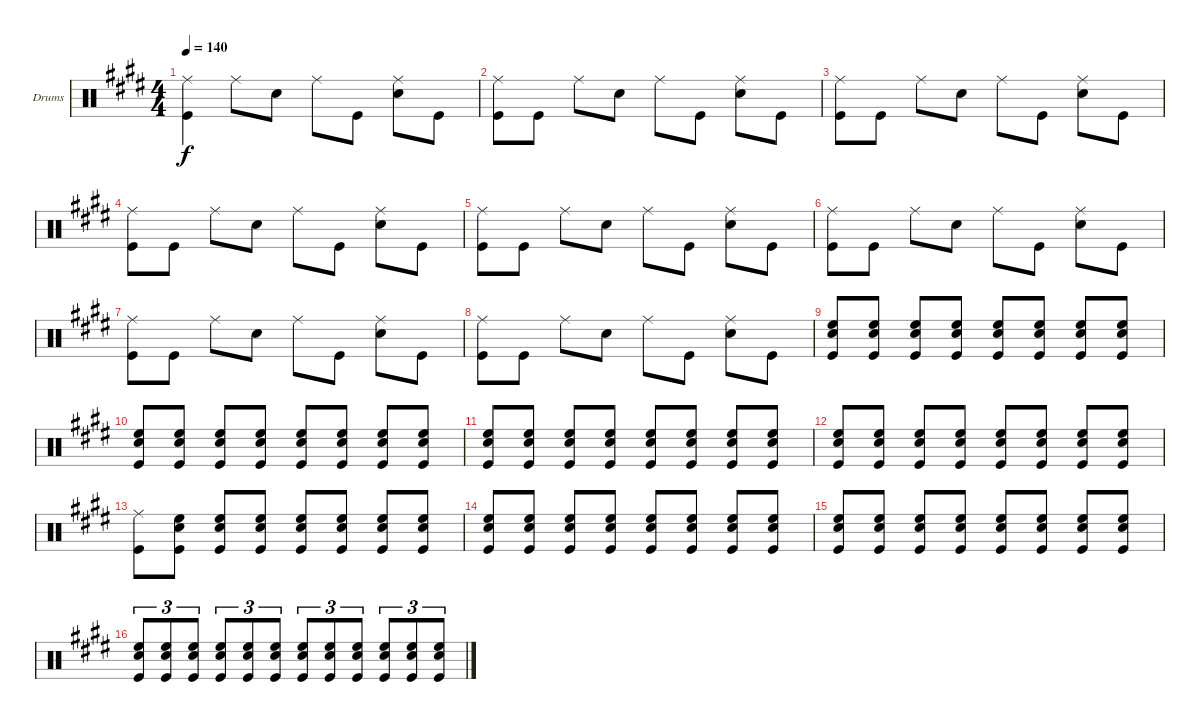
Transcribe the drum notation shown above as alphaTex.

\bracketExtendMode groupsimilarinstruments
\firstSystemTrackNameOrientation horizontal
\otherSystemsTrackNameOrientation horizontal
\track ("Drumkit" "Drums") {instrument percussion}
\staff {score}
\articulation defaults
\ts (4 4)
\tempo 140
\clef neutral
\ks e
("Ride (middle)" "Kick (hit)").4{dy f} "Ride (middle)".8 "Snare (hit) 2".8 "Ride (middle)".8 "Kick (hit)".8 ("Ride (middle)" "Snare (hit) 2").8 "Kick (hit)".8 |
("Ride (middle)" "Kick (hit)").8 "Kick (hit)".8 "Ride (middle)".8 "Snare (hit) 2".8 "Ride (middle)".8 "Kick (hit)".8 ("Ride (middle)" "Snare (hit) 2").8 "Kick (hit)".8 |
("Ride (middle)" "Kick (hit)").8 "Kick (hit)".8 "Ride (middle)".8 "Snare (hit) 2".8 "Ride (middle)".8 "Kick (hit)".8 ("Ride (middle)" "Snare (hit) 2").8 "Kick (hit)".8 |
("Ride (middle)" "Kick (hit)").8 "Kick (hit)".8 "Ride (middle)".8 "Snare (hit) 2".8 "Ride (middle)".8 "Kick (hit)".8 ("Ride (middle)" "Snare (hit) 2").8 "Kick (hit)".8 |
("Ride (middle)" "Kick (hit)").8 "Kick (hit)".8 "Ride (middle)".8 "Snare (hit) 2".8 "Ride (middle)".8 "Kick (hit)".8 ("Ride (middle)" "Snare (hit) 2").8 "Kick (hit)".8 |
("Ride (middle)" "Kick (hit)").8 "Kick (hit)".8 "Ride (middle)".8 "Snare (hit) 2".8 "Ride (middle)".8 "Kick (hit)".8 ("Ride (middle)" "Snare (hit) 2").8 "Kick (hit)".8 |
("Ride (middle)" "Kick (hit)").8 "Kick (hit)".8 "Ride (middle)".8 "Snare (hit) 2".8 "Ride (middle)".8 "Kick (hit)".8 ("Ride (middle)" "Snare (hit) 2").8 "Kick (hit)".8 |
("Ride (middle)" "Kick (hit)").8 "Kick (hit)".8 "Ride (middle)".8 "Snare (hit) 2".8 "Ride (middle)".8 "Kick (hit)".8 ("Ride (middle)" "Snare (hit) 2").8 "Kick (hit)".8 |
("High Floor Tom (hit)" "Snare (hit) 2" "Kick (hit)").8 ("High Floor Tom (hit)" "Snare (hit) 2" "Kick (hit)").8 ("High Floor Tom (hit)" "Snare (hit) 2" "Kick (hit)").8 ("High Floor Tom (hit)" "Snare (hit) 2" "Kick (hit)").8 ("High Floor Tom (hit)" "Snare (hit) 2" "Kick (hit)").8 ("High Floor Tom (hit)" "Snare (hit) 2" "Kick (hit)").8 ("High Floor Tom (hit)" "Snare (hit) 2" "Kick (hit)").8 ("High Floor Tom (hit)" "Snare (hit) 2" "Kick (hit)").8 |
("High Floor Tom (hit)" "Snare (hit) 2" "Kick (hit)").8 ("High Floor Tom (hit)" "Snare (hit) 2" "Kick (hit)").8 ("High Floor Tom (hit)" "Snare (hit) 2" "Kick (hit)").8 ("High Floor Tom (hit)" "Snare (hit) 2" "Kick (hit)").8 ("High Floor Tom (hit)" "Snare (hit) 2" "Kick (hit)").8 ("High Floor Tom (hit)" "Snare (hit) 2" "Kick (hit)").8 ("High Floor Tom (hit)" "Snare (hit) 2" "Kick (hit)").8 ("High Floor Tom (hit)" "Snare (hit) 2" "Kick (hit)").8 |
("High Floor Tom (hit)" "Snare (hit) 2" "Kick (hit)").8 ("High Floor Tom (hit)" "Snare (hit) 2" "Kick (hit)").8 ("High Floor Tom (hit)" "Snare (hit) 2" "Kick (hit)").8 ("High Floor Tom (hit)" "Snare (hit) 2" "Kick (hit)").8 ("High Floor Tom (hit)" "Snare (hit) 2" "Kick (hit)").8 ("High Floor Tom (hit)" "Snare (hit) 2" "Kick (hit)").8 ("High Floor Tom (hit)" "Snare (hit) 2" "Kick (hit)").8 ("High Floor Tom (hit)" "Snare (hit) 2" "Kick (hit)").8 |
("High Floor Tom (hit)" "Snare (hit) 2" "Kick (hit)").8 ("High Floor Tom (hit)" "Snare (hit) 2" "Kick (hit)").8 ("High Floor Tom (hit)" "Snare (hit) 2" "Kick (hit)").8 ("High Floor Tom (hit)" "Snare (hit) 2" "Kick (hit)").8 ("High Floor Tom (hit)" "Snare (hit) 2" "Kick (hit)").8 ("High Floor Tom (hit)" "Snare (hit) 2" "Kick (hit)").8 ("High Floor Tom (hit)" "Snare (hit) 2" "Kick (hit)").8 ("High Floor Tom (hit)" "Snare (hit) 2" "Kick (hit)").8 |
("Ride (middle)" "Kick (hit)").8 ("High Floor Tom (hit)" "Snare (hit) 2" "Kick (hit)").8 ("High Floor Tom (hit)" "Snare (hit) 2" "Kick (hit)").8 ("High Floor Tom (hit)" "Snare (hit) 2" "Kick (hit)").8 ("High Floor Tom (hit)" "Snare (hit) 2" "Kick (hit)").8 ("High Floor Tom (hit)" "Snare (hit) 2" "Kick (hit)").8 ("High Floor Tom (hit)" "Snare (hit) 2" "Kick (hit)").8 ("High Floor Tom (hit)" "Snare (hit) 2" "Kick (hit)").8 |
("High Floor Tom (hit)" "Snare (hit) 2" "Kick (hit)").8 ("High Floor Tom (hit)" "Snare (hit) 2" "Kick (hit)").8 ("High Floor Tom (hit)" "Snare (hit) 2" "Kick (hit)").8 ("High Floor Tom (hit)" "Snare (hit) 2" "Kick (hit)").8 ("High Floor Tom (hit)" "Snare (hit) 2" "Kick (hit)").8 ("High Floor Tom (hit)" "Snare (hit) 2" "Kick (hit)").8 ("High Floor Tom (hit)" "Snare (hit) 2" "Kick (hit)").8 ("High Floor Tom (hit)" "Snare (hit) 2" "Kick (hit)").8 |
("High Floor Tom (hit)" "Snare (hit) 2" "Kick (hit)").8 ("High Floor Tom (hit)" "Snare (hit) 2" "Kick (hit)").8 ("High Floor Tom (hit)" "Snare (hit) 2" "Kick (hit)").8 ("High Floor Tom (hit)" "Snare (hit) 2" "Kick (hit)").8 ("High Floor Tom (hit)" "Snare (hit) 2" "Kick (hit)").8 ("High Floor Tom (hit)" "Snare (hit) 2" "Kick (hit)").8 ("High Floor Tom (hit)" "Snare (hit) 2" "Kick (hit)").8 ("High Floor Tom (hit)" "Snare (hit) 2" "Kick (hit)").8 |
("High Floor Tom (hit)" "Snare (hit) 2" "Kick (hit)").8{tu (3 2)} ("High Floor Tom (hit)" "Snare (hit) 2" "Kick (hit)").8{tu (3 2)} ("High Floor Tom (hit)" "Snare (hit) 2" "Kick (hit)").8{tu (3 2)} ("High Floor Tom (hit)" "Snare (hit) 2" "Kick (hit)").8{tu (3 2)} ("High Floor Tom (hit)" "Snare (hit) 2" "Kick (hit)").8{tu (3 2)} ("High Floor Tom (hit)" "Snare (hit) 2" "Kick (hit)").8{tu (3 2)} ("High Floor Tom (hit)" "Snare (hit) 2" "Kick (hit)").8{tu (3 2)} ("High Floor Tom (hit)" "Snare (hit) 2" "Kick (hit)").8{tu (3 2)} ("High Floor Tom (hit)" "Snare (hit) 2" "Kick (hit)").8{tu (3 2)} ("High Floor Tom (hit)" "Snare (hit) 2" "Kick (hit)").8{tu (3 2)} ("High Floor Tom (hit)" "Snare (hit) 2" "Kick (hit)").8{tu (3 2)} ("High Floor Tom (hit)" "Snare (hit) 2" "Kick (hit)").8{tu (3 2)}
